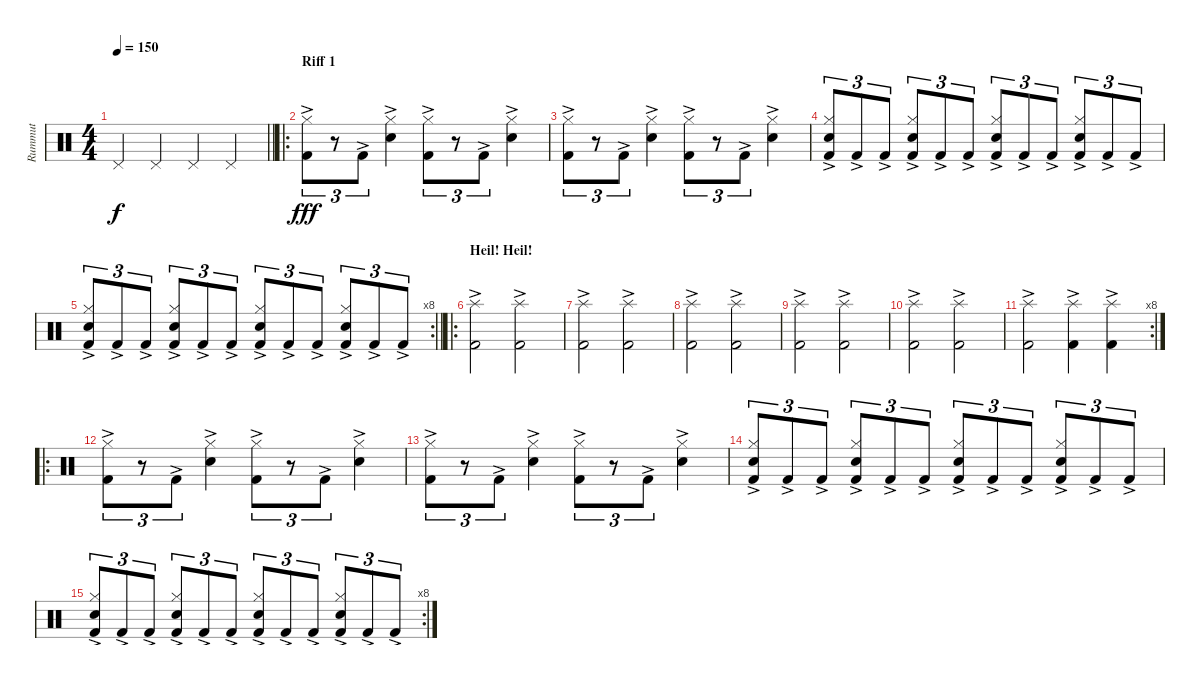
\track ("Rummut" "Rummut") {instrument percussion}
\staff {score}
\articulation defaults
\ts (4 4)
\tempo 150
\clef neutral
\barLineRight lightlight
\ks c "Pedal Hi-Hat (hit)".4{dy f} "Pedal Hi-Hat (hit)".4 "Pedal Hi-Hat (hit)".4 "Pedal Hi-Hat (hit)".4
|
\ro
\section ("" "Riff 1")
("Kick (hit) 2"{ac} "Hi-Hat (closed)"{ac}).8{tu (3 2) dy fff} r.8{tu (3 2)} "Kick (hit) 2"{ac}.8{tu (3 2)} ("Electric Snare (hit)"{ac} "Hi-Hat (closed)"{ac}).4 ("Kick (hit) 2"{ac} "Hi-Hat (closed)"{ac}).8{tu (3 2)} r.8{tu (3 2)} "Kick (hit) 2"{ac}.8{tu (3 2)} ("Electric Snare (hit)"{ac} "Hi-Hat (closed)"{ac}).4 |
("Kick (hit) 2"{ac} "Hi-Hat (closed)"{ac}).8{tu (3 2)} r.8{tu (3 2)} "Kick (hit) 2"{ac}.8{tu (3 2)} ("Electric Snare (hit)"{ac} "Hi-Hat (closed)"{ac}).4 ("Kick (hit) 2"{ac} "Hi-Hat (closed)"{ac}).8{tu (3 2)} r.8{tu (3 2)} "Kick (hit) 2"{ac}.8{tu (3 2)} ("Electric Snare (hit)"{ac} "Hi-Hat (closed)"{ac}).4 |
("Kick (hit) 2"{ac} "Electric Snare (hit)"{ac} "Hi-Hat (closed)"{ac}).8{tu (3 2)} "Kick (hit) 2"{ac}.8{tu (3 2)} "Kick (hit) 2"{ac}.8{tu (3 2)} ("Kick (hit) 2"{ac} "Electric Snare (hit)"{ac} "Hi-Hat (closed)"{ac}).8{tu (3 2)} "Kick (hit) 2"{ac}.8{tu (3 2)} "Kick (hit) 2"{ac}.8{tu (3 2)} ("Kick (hit) 2"{ac} "Electric Snare (hit)"{ac} "Hi-Hat (closed)"{ac}).8{tu (3 2)} "Kick (hit) 2"{ac}.8{tu (3 2)} "Kick (hit) 2"{ac}.8{tu (3 2)} ("Kick (hit) 2"{ac} "Electric Snare (hit)"{ac} "Hi-Hat (closed)"{ac}).8{tu (3 2)} "Kick (hit) 2"{ac}.8{tu (3 2)} "Kick (hit) 2"{ac}.8{tu (3 2)} |
\rc 8
\barLineRight lightlight
("Kick (hit) 2"{ac} "Electric Snare (hit)"{ac} "Hi-Hat (closed)"{ac}).8{tu (3 2)} "Kick (hit) 2"{ac}.8{tu (3 2)} "Kick (hit) 2"{ac}.8{tu (3 2)} ("Kick (hit) 2"{ac} "Electric Snare (hit)"{ac} "Hi-Hat (closed)"{ac}).8{tu (3 2)} "Kick (hit) 2"{ac}.8{tu (3 2)} "Kick (hit) 2"{ac}.8{tu (3 2)} ("Kick (hit) 2"{ac} "Electric Snare (hit)"{ac} "Hi-Hat (closed)"{ac}).8{tu (3 2)} "Kick (hit) 2"{ac}.8{tu (3 2)} "Kick (hit) 2"{ac}.8{tu (3 2)} ("Kick (hit) 2"{ac} "Electric Snare (hit)"{ac} "Hi-Hat (closed)"{ac}).8{tu (3 2)} "Kick (hit) 2"{ac}.8{tu (3 2)} "Kick (hit) 2"{ac}.8{tu (3 2)} |
\ro
\section ("" "Heil! Heil!")
("Splash (hit)"{ac} "Kick (hit) 2"{ac}).2 ("Splash (hit)"{ac} "Kick (hit) 2"{ac}).2 |
("Splash (hit)"{ac} "Kick (hit) 2"{ac}).2 ("Splash (hit)"{ac} "Kick (hit) 2"{ac}).2 |
("Splash (hit)"{ac} "Kick (hit) 2"{ac}).2 ("Splash (hit)"{ac} "Kick (hit) 2"{ac}).2 |
("Splash (hit)"{ac} "Kick (hit) 2"{ac}).2 ("Splash (hit)"{ac} "Kick (hit) 2"{ac}).2 |
("Splash (hit)"{ac} "Kick (hit) 2"{ac}).2 ("Splash (hit)"{ac} "Kick (hit) 2"{ac}).2 |
\rc 8
("Splash (hit)"{ac} "Kick (hit) 2"{ac}).2 ("Splash (hit)"{ac} "Kick (hit) 2"{ac}).4 ("Splash (hit)"{ac} "Kick (hit) 2"{ac}).4 |
\ro
("Kick (hit) 2"{ac} "Hi-Hat (closed)"{ac}).8{tu (3 2)} r.8{tu (3 2)} "Kick (hit) 2"{ac}.8{tu (3 2)} ("Electric Snare (hit)"{ac} "Hi-Hat (closed)"{ac}).4 ("Kick (hit) 2"{ac} "Hi-Hat (closed)"{ac}).8{tu (3 2)} r.8{tu (3 2)} "Kick (hit) 2"{ac}.8{tu (3 2)} ("Electric Snare (hit)"{ac} "Hi-Hat (closed)"{ac}).4 |
("Kick (hit) 2"{ac} "Hi-Hat (closed)"{ac}).8{tu (3 2)} r.8{tu (3 2)} "Kick (hit) 2"{ac}.8{tu (3 2)} ("Electric Snare (hit)"{ac} "Hi-Hat (closed)"{ac}).4 ("Kick (hit) 2"{ac} "Hi-Hat (closed)"{ac}).8{tu (3 2)} r.8{tu (3 2)} "Kick (hit) 2"{ac}.8{tu (3 2)} ("Electric Snare (hit)"{ac} "Hi-Hat (closed)"{ac}).4 |
("Kick (hit) 2"{ac} "Electric Snare (hit)"{ac} "Hi-Hat (closed)"{ac}).8{tu (3 2)} "Kick (hit) 2"{ac}.8{tu (3 2)} "Kick (hit) 2"{ac}.8{tu (3 2)} ("Kick (hit) 2"{ac} "Electric Snare (hit)"{ac} "Hi-Hat (closed)"{ac}).8{tu (3 2)} "Kick (hit) 2"{ac}.8{tu (3 2)} "Kick (hit) 2"{ac}.8{tu (3 2)} ("Kick (hit) 2"{ac} "Electric Snare (hit)"{ac} "Hi-Hat (closed)"{ac}).8{tu (3 2)} "Kick (hit) 2"{ac}.8{tu (3 2)} "Kick (hit) 2"{ac}.8{tu (3 2)} ("Kick (hit) 2"{ac} "Electric Snare (hit)"{ac} "Hi-Hat (closed)"{ac}).8{tu (3 2)} "Kick (hit) 2"{ac}.8{tu (3 2)} "Kick (hit) 2"{ac}.8{tu (3 2)} |
\rc 8
("Kick (hit) 2"{ac} "Electric Snare (hit)"{ac} "Hi-Hat (closed)"{ac}).8{tu (3 2)} "Kick (hit) 2"{ac}.8{tu (3 2)} "Kick (hit) 2"{ac}.8{tu (3 2)} ("Kick (hit) 2"{ac} "Electric Snare (hit)"{ac} "Hi-Hat (closed)"{ac}).8{tu (3 2)} "Kick (hit) 2"{ac}.8{tu (3 2)} "Kick (hit) 2"{ac}.8{tu (3 2)} ("Kick (hit) 2"{ac} "Electric Snare (hit)"{ac} "Hi-Hat (closed)"{ac}).8{tu (3 2)} "Kick (hit) 2"{ac}.8{tu (3 2)} "Kick (hit) 2"{ac}.8{tu (3 2)} ("Kick (hit) 2"{ac} "Electric Snare (hit)"{ac} "Hi-Hat (closed)"{ac}).8{tu (3 2)} "Kick (hit) 2"{ac}.8{tu (3 2)} "Kick (hit) 2"{ac}.8{tu (3 2)}
